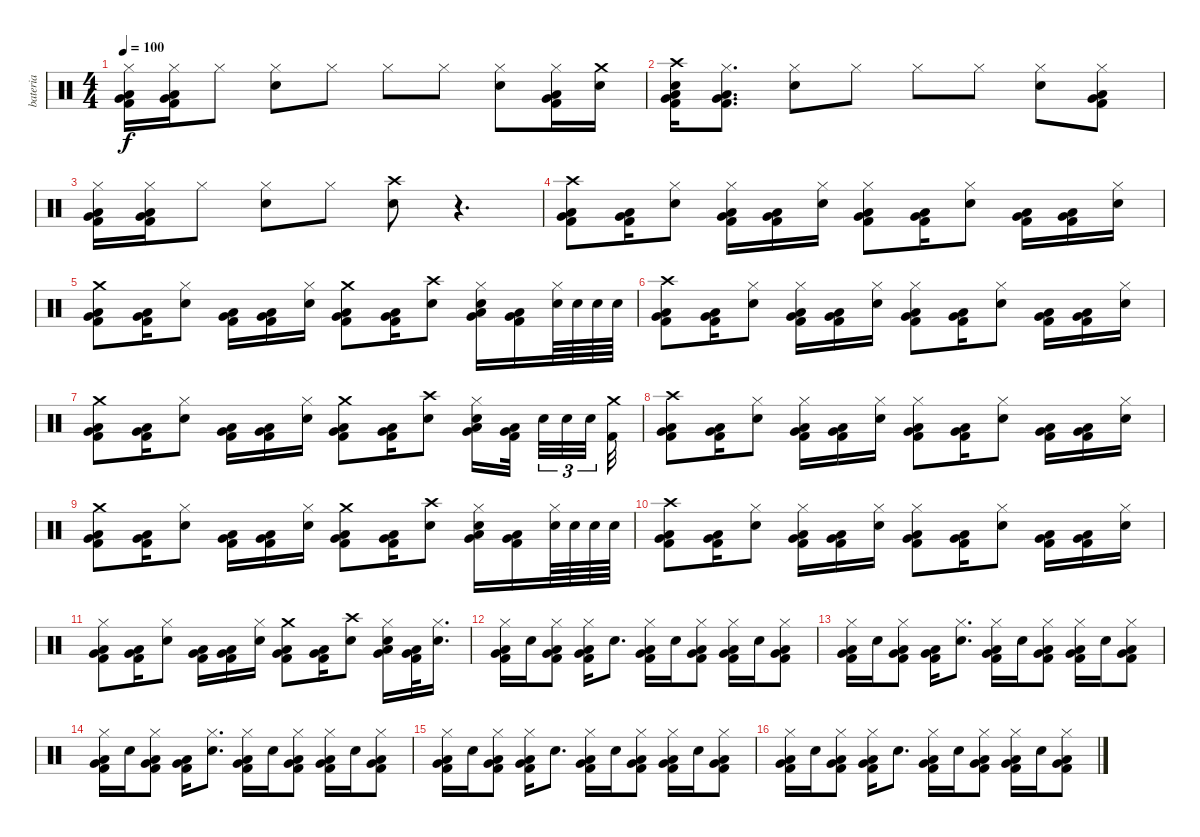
\track ("bateria" "bateria") {instrument percussion}
\staff {score}
\articulation defaults
\ts (4 4)
\tempo 100
\clef neutral
\ks c
("Hi-Hat (closed)" "Kick (hit) 2" "Low Floor Tom (hit)" "Very Low Tom (hit)").16{dy f} ("Hi-Hat (closed)" "Kick (hit) 2" "Low Floor Tom (hit)" "Very Low Tom (hit)").16 "Hi-Hat (closed)".8 ("Hi-Hat (closed)" "Electric Snare (hit)").8 "Hi-Hat (closed)".8 "Hi-Hat (closed)".8 "Hi-Hat (closed)".8 ("Hi-Hat (closed)" "Electric Snare (hit)").8 ("Hi-Hat (closed)" "Kick (hit) 2" "Low Floor Tom (hit)" "Very Low Tom (hit)").16 ("Crash medium (hit)" "Electric Snare (hit)").16 |
("Crash high (hit)" "Electric Snare (hit)" "Low Floor Tom (hit)" "Kick (hit) 2" "Very Low Tom (hit)").16 ("Hi-Hat (closed)" "Low Floor Tom (hit)" "Kick (hit) 2" "Very Low Tom (hit)").8{d} ("Hi-Hat (closed)" "Electric Snare (hit)").8 "Hi-Hat (closed)".8 "Hi-Hat (closed)".8 "Hi-Hat (closed)".8 ("Hi-Hat (closed)" "Electric Snare (hit)").8 ("Hi-Hat (closed)" "Kick (hit) 2" "Low Floor Tom (hit)" "Very Low Tom (hit)").8 |
("Hi-Hat (closed)" "Kick (hit) 2" "Low Floor Tom (hit)" "Very Low Tom (hit)").16 ("Hi-Hat (closed)" "Kick (hit) 2" "Low Floor Tom (hit)" "Very Low Tom (hit)").16 "Hi-Hat (closed)".8 ("Hi-Hat (closed)" "Electric Snare (hit)").8 "Hi-Hat (closed)".8 ("Crash high (hit)" "Electric Snare (hit)").8 r.4{d} |
("Crash high (hit)" "Kick (hit) 2" "Low Floor Tom (hit)" "Very Low Tom (hit)").8 ("Kick (hit) 2" "Low Floor Tom (hit)" "Very Low Tom (hit)").16 ("Hi-Hat (closed)" "Electric Snare (hit)").8 ("Hi-Hat (closed)" "Kick (hit) 2" "Low Floor Tom (hit)" "Very Low Tom (hit)").16 ("Kick (hit) 2" "Low Floor Tom (hit)" "Very Low Tom (hit)").16 ("Hi-Hat (closed)" "Electric Snare (hit)").16 ("Hi-Hat (closed)" "Kick (hit) 2" "Low Floor Tom (hit)" "Very Low Tom (hit)").8 ("Kick (hit) 2" "Low Floor Tom (hit)" "Very Low Tom (hit)").16 ("Hi-Hat (closed)" "Electric Snare (hit)").8 ("Kick (hit) 2" "Low Floor Tom (hit)" "Very Low Tom (hit)").16 ("Kick (hit) 2" "Low Floor Tom (hit)" "Very Low Tom (hit)").16 ("Hi-Hat (closed)" "Electric Snare (hit)").16 |
("Crash medium (hit)" "Kick (hit) 2" "Low Floor Tom (hit)" "Very Low Tom (hit)").8 ("Kick (hit) 2" "Low Floor Tom (hit)" "Very Low Tom (hit)").16 ("Hi-Hat (closed)" "Electric Snare (hit)").8 ("Kick (hit) 2" "Low Floor Tom (hit)" "Very Low Tom (hit)").16 ("Kick (hit) 2" "Low Floor Tom (hit)" "Very Low Tom (hit)").16 ("Hi-Hat (closed)" "Electric Snare (hit)").16 ("Crash medium (hit)" "Kick (hit) 2" "Low Floor Tom (hit)" "Very Low Tom (hit)").8 ("Kick (hit) 2" "Low Floor Tom (hit)" "Very Low Tom (hit)").16 ("Crash high (hit)" "Electric Snare (hit)").8 ("Hi-Hat (closed)" "Electric Snare (hit)" "Low Floor Tom (hit)" "Very Low Tom (hit)").16 ("Kick (hit) 2" "Low Floor Tom (hit)" "Very Low Tom (hit)").16 ("Hi-Hat (closed)" "Electric Snare (hit)").64 "Electric Snare (hit)".64 "Electric Snare (hit)".64 "Electric Snare (hit)".64 |
("Crash high (hit)" "Kick (hit) 2" "Low Floor Tom (hit)" "Very Low Tom (hit)").8 ("Kick (hit) 2" "Low Floor Tom (hit)" "Very Low Tom (hit)").16 ("Hi-Hat (closed)" "Electric Snare (hit)").8 ("Hi-Hat (closed)" "Kick (hit) 2" "Low Floor Tom (hit)" "Very Low Tom (hit)").16 ("Kick (hit) 2" "Low Floor Tom (hit)" "Very Low Tom (hit)").16 ("Hi-Hat (closed)" "Electric Snare (hit)").16 ("Hi-Hat (closed)" "Kick (hit) 2" "Low Floor Tom (hit)" "Very Low Tom (hit)").8 ("Kick (hit) 2" "Low Floor Tom (hit)" "Very Low Tom (hit)").16 ("Hi-Hat (closed)" "Electric Snare (hit)").8 ("Kick (hit) 2" "Low Floor Tom (hit)" "Very Low Tom (hit)").16 ("Kick (hit) 2" "Low Floor Tom (hit)" "Very Low Tom (hit)").16 ("Hi-Hat (closed)" "Electric Snare (hit)").16 |
("Crash medium (hit)" "Kick (hit) 2" "Low Floor Tom (hit)" "Very Low Tom (hit)").8 ("Kick (hit) 2" "Low Floor Tom (hit)" "Very Low Tom (hit)").16 ("Hi-Hat (closed)" "Electric Snare (hit)").8 ("Kick (hit) 2" "Low Floor Tom (hit)" "Very Low Tom (hit)").16 ("Kick (hit) 2" "Low Floor Tom (hit)" "Very Low Tom (hit)").16 ("Hi-Hat (closed)" "Electric Snare (hit)").16 ("Crash medium (hit)" "Kick (hit) 2" "Low Floor Tom (hit)" "Very Low Tom (hit)").8 ("Kick (hit) 2" "Low Floor Tom (hit)" "Very Low Tom (hit)").16 ("Crash high (hit)" "Electric Snare (hit)").8 ("Hi-Hat (closed)" "Electric Snare (hit)" "Low Floor Tom (hit)" "Very Low Tom (hit)").16 ("Kick (hit) 2" "Low Floor Tom (hit)" "Very Low Tom (hit)").32{beam splitsecondary} "Electric Snare (hit)".32{tu (3 2)} "Electric Snare (hit)".32{tu (3 2)} "Electric Snare (hit)".32{tu (3 2) beam splitsecondary} ("Crash medium (hit)" "Kick (hit) 2").32 |
("Crash high (hit)" "Kick (hit) 2" "Low Floor Tom (hit)" "Very Low Tom (hit)").8 ("Kick (hit) 2" "Low Floor Tom (hit)" "Very Low Tom (hit)").16 ("Hi-Hat (closed)" "Electric Snare (hit)").8 ("Hi-Hat (closed)" "Kick (hit) 2" "Low Floor Tom (hit)" "Very Low Tom (hit)").16 ("Kick (hit) 2" "Low Floor Tom (hit)" "Very Low Tom (hit)").16 ("Hi-Hat (closed)" "Electric Snare (hit)").16 ("Hi-Hat (closed)" "Kick (hit) 2" "Low Floor Tom (hit)" "Very Low Tom (hit)").8 ("Kick (hit) 2" "Low Floor Tom (hit)" "Very Low Tom (hit)").16 ("Hi-Hat (closed)" "Electric Snare (hit)").8 ("Kick (hit) 2" "Low Floor Tom (hit)" "Very Low Tom (hit)").16 ("Kick (hit) 2" "Low Floor Tom (hit)" "Very Low Tom (hit)").16 ("Hi-Hat (closed)" "Electric Snare (hit)").16 |
("Crash medium (hit)" "Kick (hit) 2" "Low Floor Tom (hit)" "Very Low Tom (hit)").8 ("Kick (hit) 2" "Low Floor Tom (hit)" "Very Low Tom (hit)").16 ("Hi-Hat (closed)" "Electric Snare (hit)").8 ("Kick (hit) 2" "Low Floor Tom (hit)" "Very Low Tom (hit)").16 ("Kick (hit) 2" "Low Floor Tom (hit)" "Very Low Tom (hit)").16 ("Hi-Hat (closed)" "Electric Snare (hit)").16 ("Crash medium (hit)" "Kick (hit) 2" "Low Floor Tom (hit)" "Very Low Tom (hit)").8 ("Kick (hit) 2" "Low Floor Tom (hit)" "Very Low Tom (hit)").16 ("Crash high (hit)" "Electric Snare (hit)").8 ("Hi-Hat (closed)" "Electric Snare (hit)" "Low Floor Tom (hit)" "Very Low Tom (hit)").16 ("Kick (hit) 2" "Low Floor Tom (hit)" "Very Low Tom (hit)").16 ("Hi-Hat (closed)" "Electric Snare (hit)").64 "Electric Snare (hit)".64 "Electric Snare (hit)".64 "Electric Snare (hit)".64 |
("Crash high (hit)" "Kick (hit) 2" "Low Floor Tom (hit)" "Very Low Tom (hit)").8 ("Kick (hit) 2" "Low Floor Tom (hit)" "Very Low Tom (hit)").16 ("Hi-Hat (closed)" "Electric Snare (hit)").8 ("Hi-Hat (closed)" "Kick (hit) 2" "Low Floor Tom (hit)" "Very Low Tom (hit)").16 ("Kick (hit) 2" "Low Floor Tom (hit)" "Very Low Tom (hit)").16 ("Hi-Hat (closed)" "Electric Snare (hit)").16 ("Hi-Hat (closed)" "Kick (hit) 2" "Low Floor Tom (hit)" "Very Low Tom (hit)").8 ("Kick (hit) 2" "Low Floor Tom (hit)" "Very Low Tom (hit)").16 ("Hi-Hat (closed)" "Electric Snare (hit)").8 ("Kick (hit) 2" "Low Floor Tom (hit)" "Very Low Tom (hit)").16 ("Kick (hit) 2" "Low Floor Tom (hit)" "Very Low Tom (hit)").16 ("Hi-Hat (closed)" "Electric Snare (hit)").16 |
("Hi-Hat (closed)" "Kick (hit) 2" "Low Floor Tom (hit)" "Very Low Tom (hit)").8 ("Kick (hit) 2" "Low Floor Tom (hit)" "Very Low Tom (hit)").16 ("Hi-Hat (closed)" "Electric Snare (hit)").8 ("Kick (hit) 2" "Low Floor Tom (hit)" "Very Low Tom (hit)").16 ("Kick (hit) 2" "Low Floor Tom (hit)" "Very Low Tom (hit)").16 ("Hi-Hat (closed)" "Electric Snare (hit)").16 ("Crash medium (hit)" "Kick (hit) 2" "Low Floor Tom (hit)" "Very Low Tom (hit)").8 ("Kick (hit) 2" "Low Floor Tom (hit)" "Very Low Tom (hit)").16 ("Crash high (hit)" "Electric Snare (hit)").8 ("Hi-Hat (closed)" "Electric Snare (hit)" "Low Floor Tom (hit)" "Very Low Tom (hit)").16 ("Kick (hit) 2" "Low Floor Tom (hit)" "Very Low Tom (hit)").32 ("Hi-Hat (closed)" "Electric Snare (hit)").16{d} |
("Hi-Hat (closed)" "Kick (hit) 2" "Low Floor Tom (hit)" "Very Low Tom (hit)").16 "Electric Snare (hit)".16 ("Hi-Hat (closed)" "Kick (hit) 2" "Low Floor Tom (hit)" "Very Low Tom (hit)").8 ("Hi-Hat (closed)" "Kick (hit) 2" "Low Floor Tom (hit)" "Very Low Tom (hit)").16 "Electric Snare (hit)".8{d} ("Hi-Hat (closed)" "Kick (hit) 2" "Low Floor Tom (hit)" "Very Low Tom (hit)").16 "Electric Snare (hit)".16 ("Hi-Hat (closed)" "Kick (hit) 2" "Low Floor Tom (hit)" "Very Low Tom (hit)").8 ("Hi-Hat (closed)" "Kick (hit) 2" "Low Floor Tom (hit)" "Very Low Tom (hit)").16 "Electric Snare (hit)".16 ("Hi-Hat (closed)" "Kick (hit) 2" "Low Floor Tom (hit)" "Very Low Tom (hit)").8 |
("Hi-Hat (closed)" "Kick (hit) 2" "Low Floor Tom (hit)" "Very Low Tom (hit)").16 "Electric Snare (hit)".16 ("Hi-Hat (closed)" "Kick (hit) 2" "Low Floor Tom (hit)" "Very Low Tom (hit)").8 ("Kick (hit) 2" "Low Floor Tom (hit)" "Very Low Tom (hit)").16 ("Hi-Hat (closed)" "Electric Snare (hit)").8{d} ("Hi-Hat (closed)" "Kick (hit) 2" "Low Floor Tom (hit)" "Very Low Tom (hit)").16 "Electric Snare (hit)".16 ("Hi-Hat (closed)" "Kick (hit) 2" "Low Floor Tom (hit)" "Very Low Tom (hit)").8 ("Hi-Hat (closed)" "Kick (hit) 2" "Low Floor Tom (hit)" "Very Low Tom (hit)").16 "Electric Snare (hit)".16 ("Hi-Hat (closed)" "Kick (hit) 2" "Low Floor Tom (hit)" "Very Low Tom (hit)").8 |
("Hi-Hat (closed)" "Kick (hit) 2" "Low Floor Tom (hit)" "Very Low Tom (hit)").16 "Electric Snare (hit)".16 ("Hi-Hat (closed)" "Kick (hit) 2" "Low Floor Tom (hit)" "Very Low Tom (hit)").8 ("Kick (hit) 2" "Low Floor Tom (hit)" "Very Low Tom (hit)").16 ("Hi-Hat (closed)" "Electric Snare (hit)").8{d} ("Hi-Hat (closed)" "Kick (hit) 2" "Low Floor Tom (hit)" "Very Low Tom (hit)").16 "Electric Snare (hit)".16 ("Hi-Hat (closed)" "Kick (hit) 2" "Low Floor Tom (hit)" "Very Low Tom (hit)").8 ("Hi-Hat (closed)" "Kick (hit) 2" "Low Floor Tom (hit)" "Very Low Tom (hit)").16 "Electric Snare (hit)".16 ("Hi-Hat (closed)" "Kick (hit) 2" "Low Floor Tom (hit)" "Very Low Tom (hit)").8 |
("Hi-Hat (closed)" "Kick (hit) 2" "Low Floor Tom (hit)" "Very Low Tom (hit)").16 "Electric Snare (hit)".16 ("Hi-Hat (closed)" "Kick (hit) 2" "Low Floor Tom (hit)" "Very Low Tom (hit)").8 ("Hi-Hat (closed)" "Kick (hit) 2" "Low Floor Tom (hit)" "Very Low Tom (hit)").16 "Electric Snare (hit)".8{d} ("Hi-Hat (closed)" "Kick (hit) 2" "Low Floor Tom (hit)" "Very Low Tom (hit)").16 "Electric Snare (hit)".16 ("Hi-Hat (closed)" "Kick (hit) 2" "Low Floor Tom (hit)" "Very Low Tom (hit)").8 ("Hi-Hat (closed)" "Kick (hit) 2" "Low Floor Tom (hit)" "Very Low Tom (hit)").16 "Electric Snare (hit)".16 ("Hi-Hat (closed)" "Kick (hit) 2" "Low Floor Tom (hit)" "Very Low Tom (hit)").8 |
("Hi-Hat (closed)" "Kick (hit) 2" "Low Floor Tom (hit)" "Very Low Tom (hit)").16 "Electric Snare (hit)".16 ("Hi-Hat (closed)" "Kick (hit) 2" "Low Floor Tom (hit)" "Very Low Tom (hit)").8 ("Hi-Hat (closed)" "Kick (hit) 2" "Low Floor Tom (hit)" "Very Low Tom (hit)").16 "Electric Snare (hit)".8{d} ("Hi-Hat (closed)" "Kick (hit) 2" "Low Floor Tom (hit)" "Very Low Tom (hit)").16 "Electric Snare (hit)".16 ("Hi-Hat (closed)" "Kick (hit) 2" "Low Floor Tom (hit)" "Very Low Tom (hit)").8 ("Hi-Hat (closed)" "Kick (hit) 2" "Low Floor Tom (hit)" "Very Low Tom (hit)").16 "Electric Snare (hit)".16 ("Hi-Hat (closed)" "Kick (hit) 2" "Low Floor Tom (hit)" "Very Low Tom (hit)").8
